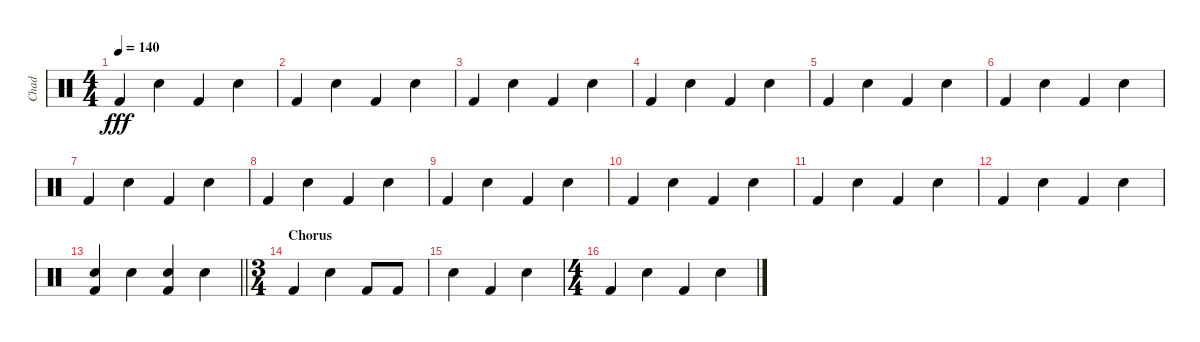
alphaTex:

\track ("Chad" "Chad") {instrument percussion}
\staff {score}
\articulation defaults
\ts (4 4)
\tempo 140
\clef neutral
\ks c "Kick (hit) 2".4{dy fff} "Electric Snare (hit)".4 "Kick (hit) 2".4 "Electric Snare (hit)".4
|
"Kick (hit) 2".4 "Electric Snare (hit)".4 "Kick (hit) 2".4 "Electric Snare (hit)".4 |
"Kick (hit) 2".4 "Electric Snare (hit)".4 "Kick (hit) 2".4 "Electric Snare (hit)".4 |
"Kick (hit) 2".4 "Electric Snare (hit)".4 "Kick (hit) 2".4 "Electric Snare (hit)".4 |
"Kick (hit) 2".4 "Electric Snare (hit)".4 "Kick (hit) 2".4 "Electric Snare (hit)".4 |
"Kick (hit) 2".4 "Electric Snare (hit)".4 "Kick (hit) 2".4 "Electric Snare (hit)".4 |
"Kick (hit) 2".4 "Electric Snare (hit)".4 "Kick (hit) 2".4 "Electric Snare (hit)".4 |
"Kick (hit) 2".4 "Electric Snare (hit)".4 "Kick (hit) 2".4 "Electric Snare (hit)".4 |
"Kick (hit) 2".4 "Electric Snare (hit)".4 "Kick (hit) 2".4 "Electric Snare (hit)".4 |
"Kick (hit) 2".4 "Electric Snare (hit)".4 "Kick (hit) 2".4 "Electric Snare (hit)".4 |
"Kick (hit) 2".4 "Electric Snare (hit)".4 "Kick (hit) 2".4 "Electric Snare (hit)".4 |
"Kick (hit) 2".4 "Electric Snare (hit)".4 "Kick (hit) 2".4 "Electric Snare (hit)".4 |
\barLineRight lightlight
("Electric Snare (hit)" "Kick (hit) 2").4 "Electric Snare (hit)".4 ("Electric Snare (hit)" "Kick (hit) 2").4 "Electric Snare (hit)".4 |
\ts (3 4)
\section ("" "Chorus")
"Kick (hit) 2".4 "Electric Snare (hit)".4 "Kick (hit) 2".8 "Kick (hit) 2".8 |
"Electric Snare (hit)".4 "Kick (hit) 2".4 "Electric Snare (hit)".4 |
\ts (4 4)
"Kick (hit) 2".4 "Electric Snare (hit)".4 "Kick (hit) 2".4 "Electric Snare (hit)".4
